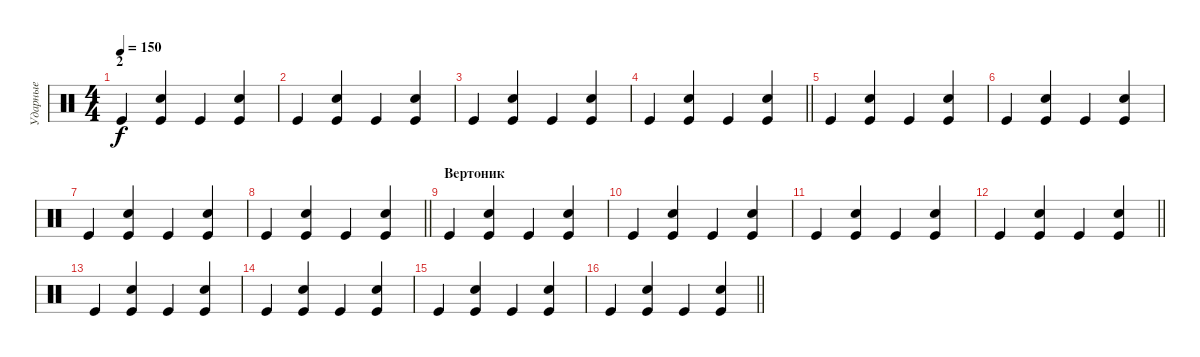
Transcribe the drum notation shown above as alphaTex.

\track ("Ударные" "Ударные") {instrument percussion}
\staff {score}
\articulation defaults
\ts (4 4)
\section ("" "2")
\tempo 150
\clef neutral
\ks c "Kick (hit)".4{dy f}
("Kick (hit)" "Snare (hit) 2").4 "Kick (hit)".4 ("Kick (hit)" "Snare (hit) 2").4 |
"Kick (hit)".4 ("Kick (hit)" "Snare (hit) 2").4 "Kick (hit)".4 ("Kick (hit)" "Snare (hit) 2").4 |
"Kick (hit)".4 ("Kick (hit)" "Snare (hit) 2").4 "Kick (hit)".4 ("Kick (hit)" "Snare (hit) 2").4 |
\barLineRight lightlight "Kick (hit)".4
("Kick (hit)" "Snare (hit) 2").4 "Kick (hit)".4 ("Kick (hit)" "Snare (hit) 2").4 |
"Kick (hit)".4 ("Kick (hit)" "Snare (hit) 2").4 "Kick (hit)".4 ("Kick (hit)" "Snare (hit) 2").4 |
"Kick (hit)".4 ("Kick (hit)" "Snare (hit) 2").4 "Kick (hit)".4 ("Kick (hit)" "Snare (hit) 2").4 |
"Kick (hit)".4 ("Kick (hit)" "Snare (hit) 2").4 "Kick (hit)".4 ("Kick (hit)" "Snare (hit) 2").4 |
\barLineRight lightlight "Kick (hit)".4
("Kick (hit)" "Snare (hit) 2").4 "Kick (hit)".4 ("Kick (hit)" "Snare (hit) 2").4 |
\section ("" "Вертоник")
"Kick (hit)".4 ("Kick (hit)" "Snare (hit) 2").4 "Kick (hit)".4 ("Kick (hit)" "Snare (hit) 2").4 |
"Kick (hit)".4 ("Kick (hit)" "Snare (hit) 2").4 "Kick (hit)".4 ("Kick (hit)" "Snare (hit) 2").4 |
"Kick (hit)".4 ("Kick (hit)" "Snare (hit) 2").4 "Kick (hit)".4 ("Kick (hit)" "Snare (hit) 2").4 |
\barLineRight lightlight "Kick (hit)".4
("Kick (hit)" "Snare (hit) 2").4 "Kick (hit)".4 ("Kick (hit)" "Snare (hit) 2").4 |
"Kick (hit)".4 ("Kick (hit)" "Snare (hit) 2").4 "Kick (hit)".4 ("Kick (hit)" "Snare (hit) 2").4 |
"Kick (hit)".4 ("Kick (hit)" "Snare (hit) 2").4 "Kick (hit)".4 ("Kick (hit)" "Snare (hit) 2").4 |
"Kick (hit)".4 ("Kick (hit)" "Snare (hit) 2").4 "Kick (hit)".4 ("Kick (hit)" "Snare (hit) 2").4 |
\barLineRight lightlight "Kick (hit)".4
("Kick (hit)" "Snare (hit) 2").4 "Kick (hit)".4 ("Kick (hit)" "Snare (hit) 2").4
